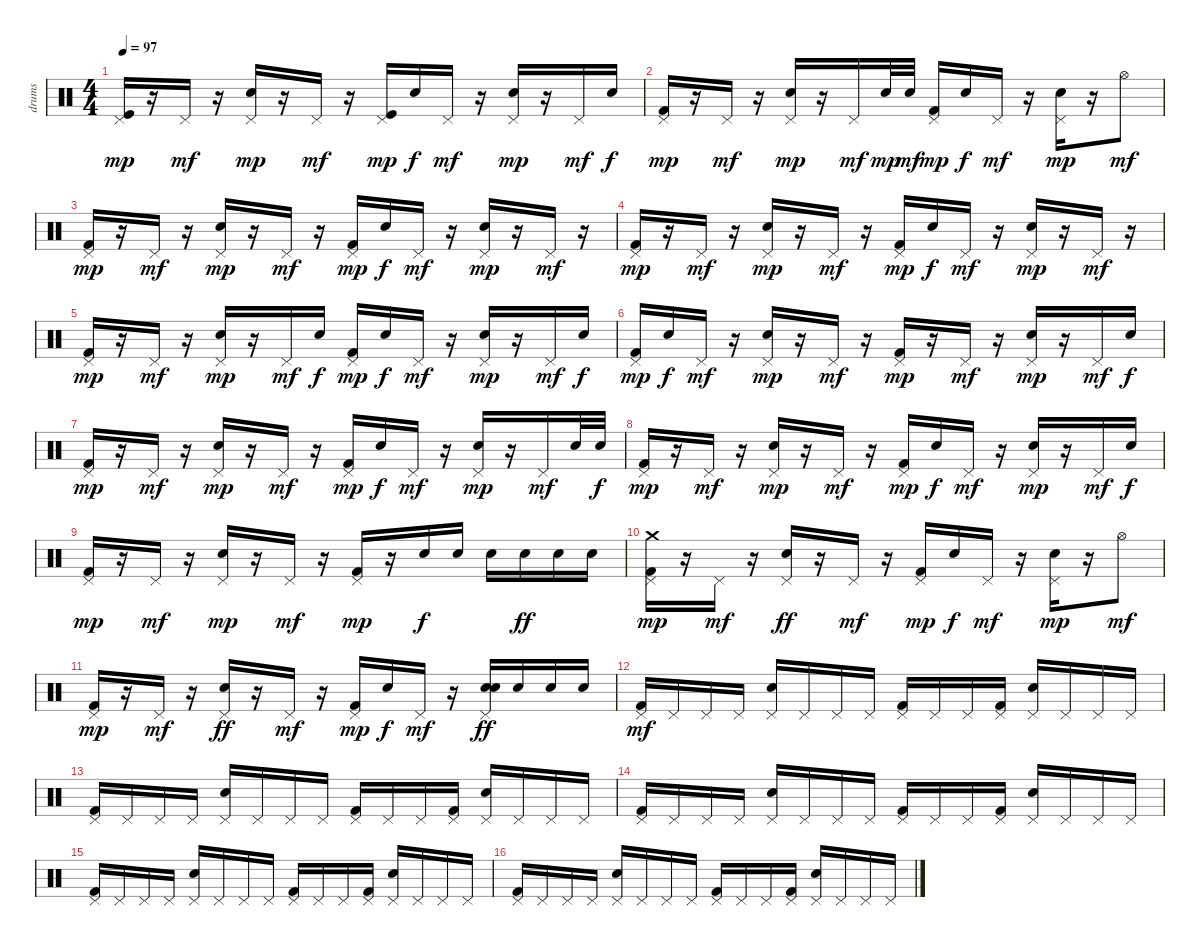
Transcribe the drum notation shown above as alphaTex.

\track ("drums" "drums") {instrument percussion}
\staff {score}
\articulation defaults
\ts (4 4)
\tempo 97
\clef neutral
\ks c
("Kick (hit)" "Pedal Hi-Hat (hit)").16{dy mp} r.16 "Pedal Hi-Hat (hit)".16{dy mf} r.16 ("Electric Snare (hit)" "Pedal Hi-Hat (hit)").16{dy mp} r.16 "Pedal Hi-Hat (hit)".16{dy mf} r.16 ("Pedal Hi-Hat (hit)" "Kick (hit)").16{dy mp} "Electric Snare (hit)".16{dy f} "Pedal Hi-Hat (hit)".16{dy mf} r.16 ("Electric Snare (hit)" "Pedal Hi-Hat (hit)").16{dy mp} r.16 "Pedal Hi-Hat (hit)".16{dy mf} "Electric Snare (hit)".16{dy f} |
("Pedal Hi-Hat (hit)" "Kick (hit) 2").16{dy mp} r.16 "Pedal Hi-Hat (hit)".16{dy mf} r.16 ("Electric Snare (hit)" "Pedal Hi-Hat (hit)").16{dy mp} r.16 "Pedal Hi-Hat (hit)".16{dy mf} "Electric Snare (hit)".32{dy mp} "Electric Snare (hit)".32{dy mf} ("Kick (hit) 2" "Pedal Hi-Hat (hit)").16{dy mp} "Electric Snare (hit)".16{dy f} "Pedal Hi-Hat (hit)".16{dy mf} r.16 ("Electric Snare (hit)" "Pedal Hi-Hat (hit)").16{dy mp} r.16 "Hi-Hat (open)".8{dy mf} |
("Pedal Hi-Hat (hit)" "Kick (hit) 2").16{dy mp} r.16 "Pedal Hi-Hat (hit)".16{dy mf} r.16 ("Electric Snare (hit)" "Pedal Hi-Hat (hit)").16{dy mp} r.16 "Pedal Hi-Hat (hit)".16{dy mf} r.16 ("Kick (hit) 2" "Pedal Hi-Hat (hit)").16{dy mp} "Electric Snare (hit)".16{dy f} "Pedal Hi-Hat (hit)".16{dy mf} r.16 ("Electric Snare (hit)" "Pedal Hi-Hat (hit)").16{dy mp} r.16 "Pedal Hi-Hat (hit)".16{dy mf} r.16 |
("Pedal Hi-Hat (hit)" "Kick (hit) 2").16{dy mp} r.16 "Pedal Hi-Hat (hit)".16{dy mf} r.16 ("Electric Snare (hit)" "Pedal Hi-Hat (hit)").16{dy mp} r.16 "Pedal Hi-Hat (hit)".16{dy mf} r.16 ("Kick (hit) 2" "Pedal Hi-Hat (hit)").16{dy mp} "Electric Snare (hit)".16{dy f} "Pedal Hi-Hat (hit)".16{dy mf} r.16 ("Electric Snare (hit)" "Pedal Hi-Hat (hit)").16{dy mp} r.16 "Pedal Hi-Hat (hit)".16{dy mf} r.16 |
("Pedal Hi-Hat (hit)" "Kick (hit) 2").16{dy mp} r.16 "Pedal Hi-Hat (hit)".16{dy mf} r.16 ("Electric Snare (hit)" "Pedal Hi-Hat (hit)").16{dy mp} r.16 "Pedal Hi-Hat (hit)".16{dy mf} "Electric Snare (hit)".16{dy f} ("Kick (hit) 2" "Pedal Hi-Hat (hit)").16{dy mp} "Electric Snare (hit)".16{dy f} "Pedal Hi-Hat (hit)".16{dy mf} r.16 ("Electric Snare (hit)" "Pedal Hi-Hat (hit)").16{dy mp} r.16 "Pedal Hi-Hat (hit)".16{dy mf} "Electric Snare (hit)".16{dy f} |
("Pedal Hi-Hat (hit)" "Kick (hit) 2").16{dy mp} "Electric Snare (hit)".16{dy f} "Pedal Hi-Hat (hit)".16{dy mf} r.16 ("Electric Snare (hit)" "Pedal Hi-Hat (hit)").16{dy mp} r.16 "Pedal Hi-Hat (hit)".16{dy mf} r.16 ("Kick (hit) 2" "Pedal Hi-Hat (hit)").16{dy mp} r.16 "Pedal Hi-Hat (hit)".16{dy mf} r.16 ("Electric Snare (hit)" "Pedal Hi-Hat (hit)").16{dy mp} r.16 "Pedal Hi-Hat (hit)".16{dy mf} "Electric Snare (hit)".16{dy f} |
("Pedal Hi-Hat (hit)" "Kick (hit) 2").16{dy mp} r.16 "Pedal Hi-Hat (hit)".16{dy mf} r.16 ("Electric Snare (hit)" "Pedal Hi-Hat (hit)").16{dy mp} r.16 "Pedal Hi-Hat (hit)".16{dy mf} r.16 ("Kick (hit) 2" "Pedal Hi-Hat (hit)").16{dy mp} "Electric Snare (hit)".16{dy f} "Pedal Hi-Hat (hit)".16{dy mf} r.16 ("Electric Snare (hit)" "Pedal Hi-Hat (hit)").16{dy mp} r.16 "Pedal Hi-Hat (hit)".16{dy mf} "Electric Snare (hit)".32 "Electric Snare (hit)".32{dy f} |
("Pedal Hi-Hat (hit)" "Kick (hit) 2").16{dy mp} r.16 "Pedal Hi-Hat (hit)".16{dy mf} r.16 ("Electric Snare (hit)" "Pedal Hi-Hat (hit)").16{dy mp} r.16 "Pedal Hi-Hat (hit)".16{dy mf} r.16 ("Kick (hit) 2" "Pedal Hi-Hat (hit)").16{dy mp} "Electric Snare (hit)".16{dy f} "Pedal Hi-Hat (hit)".16{dy mf} r.16 ("Electric Snare (hit)" "Pedal Hi-Hat (hit)").16{dy mp} r.16 "Pedal Hi-Hat (hit)".16{dy mf} "Electric Snare (hit)".16{dy f} |
("Pedal Hi-Hat (hit)" "Kick (hit) 2").16{dy mp} r.16 "Pedal Hi-Hat (hit)".16{dy mf} r.16 ("Electric Snare (hit)" "Pedal Hi-Hat (hit)").16{dy mp} r.16 "Pedal Hi-Hat (hit)".16{dy mf} r.16 ("Kick (hit) 2" "Pedal Hi-Hat (hit)").16{dy mp} r.16 "Electric Snare (hit)".16{dy f} "Electric Snare (hit)".16 "Electric Snare (hit)".16 "Electric Snare (hit)".16{dy ff} "Electric Snare (hit)".16 "Electric Snare (hit)".16 |
("Crash medium (hit)" "Pedal Hi-Hat (hit)" "Kick (hit) 2").16{dy mp} r.16 "Pedal Hi-Hat (hit)".16{dy mf} r.16 ("Pedal Hi-Hat (hit)" "Electric Snare (hit)").16{dy ff} r.16 "Pedal Hi-Hat (hit)".16{dy mf} r.16 ("Kick (hit) 2" "Pedal Hi-Hat (hit)").16{dy mp} "Electric Snare (hit)".16{dy f} "Pedal Hi-Hat (hit)".16{dy mf} r.16 ("Electric Snare (hit)" "Pedal Hi-Hat (hit)").16{dy mp} r.16 "Hi-Hat (open)".8{dy mf} |
("Pedal Hi-Hat (hit)" "Kick (hit) 2").16{dy mp} r.16 "Pedal Hi-Hat (hit)".16{dy mf} r.16 ("Pedal Hi-Hat (hit)" "Electric Snare (hit)").16{dy ff} r.16 "Pedal Hi-Hat (hit)".16{dy mf} r.16 ("Kick (hit) 2" "Pedal Hi-Hat (hit)").16{dy mp} "Electric Snare (hit)".16{dy f} "Pedal Hi-Hat (hit)".16{dy mf} r.16 ("Electric Snare (hit)" "Pedal Hi-Hat (hit)" "Electric Snare (hit)").16{dy ff} "Electric Snare (hit)".16 "Electric Snare (hit)".16 "Electric Snare (hit)".16 |
("Kick (hit) 2" "Pedal Hi-Hat (hit)").16{dy mf} "Pedal Hi-Hat (hit)".16 "Pedal Hi-Hat (hit)".16 "Pedal Hi-Hat (hit)".16 ("Electric Snare (hit)" "Pedal Hi-Hat (hit)").16 "Pedal Hi-Hat (hit)".16 "Pedal Hi-Hat (hit)".16 "Pedal Hi-Hat (hit)".16 ("Kick (hit) 2" "Pedal Hi-Hat (hit)").16 "Pedal Hi-Hat (hit)".16 "Pedal Hi-Hat (hit)".16 ("Pedal Hi-Hat (hit)" "Kick (hit) 2").16 ("Electric Snare (hit)" "Pedal Hi-Hat (hit)").16 "Pedal Hi-Hat (hit)".16 "Pedal Hi-Hat (hit)".16 "Pedal Hi-Hat (hit)".16 |
("Kick (hit) 2" "Pedal Hi-Hat (hit)").16 "Pedal Hi-Hat (hit)".16 "Pedal Hi-Hat (hit)".16 "Pedal Hi-Hat (hit)".16 ("Electric Snare (hit)" "Pedal Hi-Hat (hit)").16 "Pedal Hi-Hat (hit)".16 "Pedal Hi-Hat (hit)".16 "Pedal Hi-Hat (hit)".16 ("Kick (hit) 2" "Pedal Hi-Hat (hit)").16 "Pedal Hi-Hat (hit)".16 "Pedal Hi-Hat (hit)".16 ("Pedal Hi-Hat (hit)" "Kick (hit) 2").16 ("Electric Snare (hit)" "Pedal Hi-Hat (hit)").16 "Pedal Hi-Hat (hit)".16 "Pedal Hi-Hat (hit)".16 "Pedal Hi-Hat (hit)".16 |
("Kick (hit) 2" "Pedal Hi-Hat (hit)").16 "Pedal Hi-Hat (hit)".16 "Pedal Hi-Hat (hit)".16 "Pedal Hi-Hat (hit)".16 ("Electric Snare (hit)" "Pedal Hi-Hat (hit)").16 "Pedal Hi-Hat (hit)".16 "Pedal Hi-Hat (hit)".16 "Pedal Hi-Hat (hit)".16 ("Kick (hit) 2" "Pedal Hi-Hat (hit)").16 "Pedal Hi-Hat (hit)".16 "Pedal Hi-Hat (hit)".16 ("Pedal Hi-Hat (hit)" "Kick (hit) 2").16 ("Electric Snare (hit)" "Pedal Hi-Hat (hit)").16 "Pedal Hi-Hat (hit)".16 "Pedal Hi-Hat (hit)".16 "Pedal Hi-Hat (hit)".16 |
("Kick (hit) 2" "Pedal Hi-Hat (hit)").16 "Pedal Hi-Hat (hit)".16 "Pedal Hi-Hat (hit)".16 "Pedal Hi-Hat (hit)".16 ("Electric Snare (hit)" "Pedal Hi-Hat (hit)").16 "Pedal Hi-Hat (hit)".16 "Pedal Hi-Hat (hit)".16 "Pedal Hi-Hat (hit)".16 ("Kick (hit) 2" "Pedal Hi-Hat (hit)").16 "Pedal Hi-Hat (hit)".16 "Pedal Hi-Hat (hit)".16 ("Pedal Hi-Hat (hit)" "Kick (hit) 2").16 ("Electric Snare (hit)" "Pedal Hi-Hat (hit)").16 "Pedal Hi-Hat (hit)".16 "Pedal Hi-Hat (hit)".16 "Pedal Hi-Hat (hit)".16 |
("Kick (hit) 2" "Pedal Hi-Hat (hit)").16 "Pedal Hi-Hat (hit)".16 "Pedal Hi-Hat (hit)".16 "Pedal Hi-Hat (hit)".16 ("Electric Snare (hit)" "Pedal Hi-Hat (hit)").16 "Pedal Hi-Hat (hit)".16 "Pedal Hi-Hat (hit)".16 "Pedal Hi-Hat (hit)".16 ("Kick (hit) 2" "Pedal Hi-Hat (hit)").16 "Pedal Hi-Hat (hit)".16 "Pedal Hi-Hat (hit)".16 ("Pedal Hi-Hat (hit)" "Kick (hit) 2").16 ("Electric Snare (hit)" "Pedal Hi-Hat (hit)").16 "Pedal Hi-Hat (hit)".16 "Pedal Hi-Hat (hit)".16 "Pedal Hi-Hat (hit)".16
